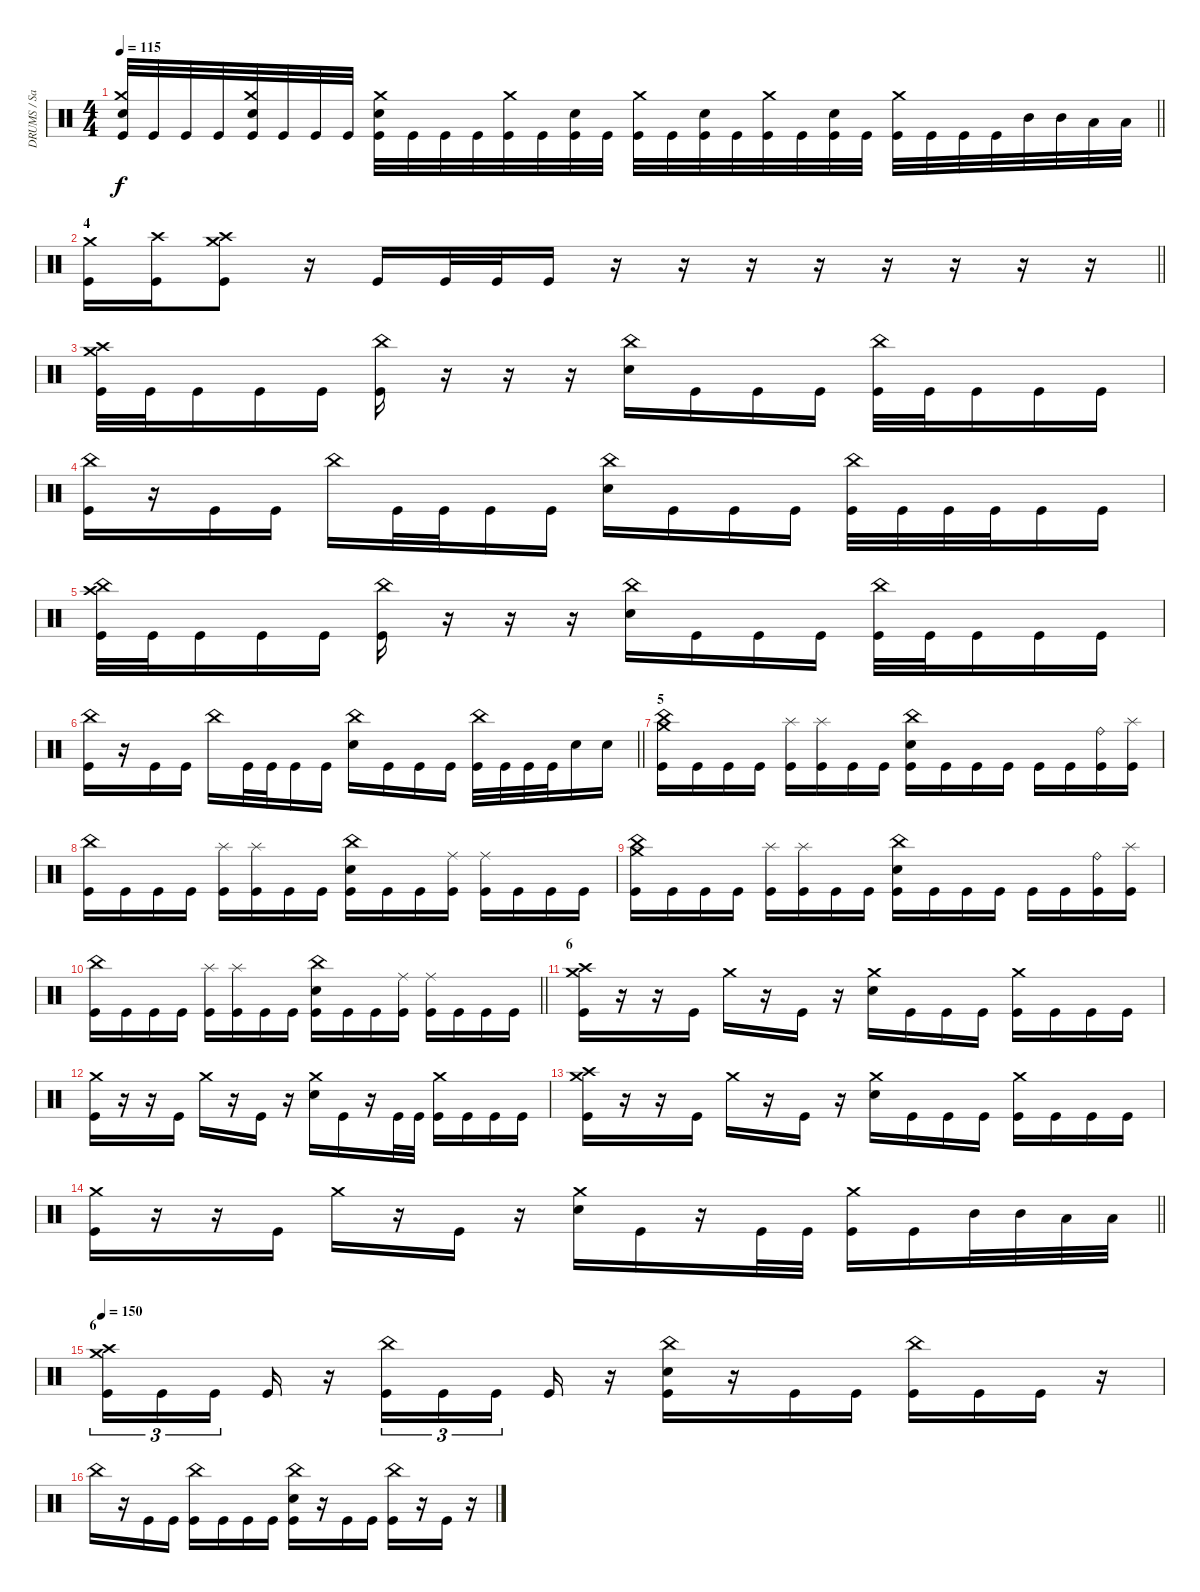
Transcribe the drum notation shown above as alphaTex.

\track ("DRUMS / Sasha" "DRUMS / Sa") {instrument percussion}
\staff {score}
\articulation defaults
\ts (4 4)
\tempo 115
\clef neutral
\barLineRight lightlight
\ks c
("Kick (hit)" "Crash medium (hit)" "Snare (hit) 2").32{dy f} "Kick (hit)".32 "Kick (hit)".32 "Kick (hit)".32 ("Kick (hit)" "Crash medium (hit)" "Snare (hit) 2").32 "Kick (hit)".32 "Kick (hit)".32 "Kick (hit)".32 ("Kick (hit)" "Crash medium (hit)" "Snare (hit) 2").32 "Kick (hit)".32 "Kick (hit)".32 "Kick (hit)".32 ("Kick (hit)" "Crash medium (hit)").32 "Kick (hit)".32 ("Kick (hit)" "Snare (hit) 2").32 "Kick (hit)".32 ("Kick (hit)" "Crash medium (hit)").32 "Kick (hit)".32 ("Kick (hit)" "Snare (hit) 2").32 "Kick (hit)".32 ("Kick (hit)" "Crash medium (hit)").32 "Kick (hit)".32 ("Kick (hit)" "Snare (hit) 2").32 "Kick (hit)".32 ("Kick (hit)" "Crash medium (hit)").32 "Kick (hit)".32 "Kick (hit)".32 "Kick (hit)".32 "Mid Tom (hit)".32 "Mid Tom (hit)".32 "Low Tom (hit)".32 "Low Tom (hit)".32 |
\section ("" "4")
\barLineRight lightlight
("Crash medium (hit)" "Kick (hit)").16 ("Crash high (hit)" "Kick (hit)").16 ("Crash medium (hit)" "Crash high (hit)" "Kick (hit)").8 r.16 "Kick (hit)".16 "Kick (hit)".32 "Kick (hit)".32 "Kick (hit)".16 r.16 r.16 r.16 r.16 r.16 r.16 r.16 r.16 |
\section ("" "")
("Crash high (hit)" "Kick (hit)" "Crash medium (hit)").32 "Kick (hit)".32 "Kick (hit)".16 "Kick (hit)".16 "Kick (hit)".16 ("China (hit)" "Kick (hit)").16 r.16 r.16 r.16 ("China (hit)" "Snare (hit) 2").16 "Kick (hit)".16 "Kick (hit)".16 "Kick (hit)".16 ("China (hit)" "Kick (hit)").32 "Kick (hit)".32 "Kick (hit)".16 "Kick (hit)".16 "Kick (hit)".16 |
("China (hit)" "Kick (hit)").16 r.16 "Kick (hit)".16 "Kick (hit)".16 "China (hit)".16 "Kick (hit)".32 "Kick (hit)".32 "Kick (hit)".16 "Kick (hit)".16 ("China (hit)" "Snare (hit) 2").16 "Kick (hit)".16 "Kick (hit)".16 "Kick (hit)".16 ("China (hit)" "Kick (hit)").32 "Kick (hit)".32 "Kick (hit)".32 "Kick (hit)".32 "Kick (hit)".16 "Kick (hit)".16 |
("Crash high (hit)" "China (hit)" "Kick (hit)").32 "Kick (hit)".32 "Kick (hit)".16 "Kick (hit)".16 "Kick (hit)".16 ("China (hit)" "Kick (hit)").16 r.16 r.16 r.16 ("China (hit)" "Snare (hit) 2").16 "Kick (hit)".16 "Kick (hit)".16 "Kick (hit)".16 ("China (hit)" "Kick (hit)").32 "Kick (hit)".32 "Kick (hit)".16 "Kick (hit)".16 "Kick (hit)".16 |
\barLineRight lightlight
("China (hit)" "Kick (hit)").16 r.16 "Kick (hit)".16 "Kick (hit)".16 "China (hit)".16 "Kick (hit)".32 "Kick (hit)".32 "Kick (hit)".16 "Kick (hit)".16 ("China (hit)" "Snare (hit) 2").16 "Kick (hit)".16 "Kick (hit)".16 "Kick (hit)".16 ("China (hit)" "Kick (hit)").32 "Kick (hit)".32 "Kick (hit)".32 "Kick (hit)".32 "Snare (hit) 2".16 "Snare (hit) 2".16 |
\section ("" "5")
("Crash medium (hit)" "China (hit)" "Kick (hit)").16 "Kick (hit)".16 "Kick (hit)".16 "Kick (hit)".16 ("Splash (hit)" "Kick (hit)").16 ("Splash (hit)" "Kick (hit)").16 "Kick (hit)".16 "Kick (hit)".16 ("China (hit)" "Snare (hit) 2" "Kick (hit)").16 "Kick (hit)".16 "Kick (hit)".16 "Kick (hit)".16 "Kick (hit)".16 "Kick (hit)".16 ("Ride (bell)" "Kick (hit)").16 ("Splash (hit)" "Kick (hit)").16 |
("China (hit)" "Kick (hit)").16 "Kick (hit)".16 "Kick (hit)".16 "Kick (hit)".16 ("Splash (hit)" "Kick (hit)").16 ("Splash (hit)" "Kick (hit)").16 "Kick (hit)".16 "Kick (hit)".16 ("China (hit)" "Snare (hit) 2" "Kick (hit)").16 "Kick (hit)".16 "Kick (hit)".16 ("Ride (middle)" "Kick (hit)").16 ("Ride (middle)" "Kick (hit)").16 "Kick (hit)".16 "Kick (hit)".16 "Kick (hit)".16 |
("Crash medium (hit)" "China (hit)" "Kick (hit)").16 "Kick (hit)".16 "Kick (hit)".16 "Kick (hit)".16 ("Splash (hit)" "Kick (hit)").16 ("Splash (hit)" "Kick (hit)").16 "Kick (hit)".16 "Kick (hit)".16 ("China (hit)" "Snare (hit) 2" "Kick (hit)").16 "Kick (hit)".16 "Kick (hit)".16 "Kick (hit)".16 "Kick (hit)".16 "Kick (hit)".16 ("Ride (bell)" "Kick (hit)").16 ("Splash (hit)" "Kick (hit)").16 |
\barLineRight lightlight
("China (hit)" "Kick (hit)").16 "Kick (hit)".16 "Kick (hit)".16 "Kick (hit)".16 ("Splash (hit)" "Kick (hit)").16 ("Splash (hit)" "Kick (hit)").16 "Kick (hit)".16 "Kick (hit)".16 ("China (hit)" "Snare (hit) 2" "Kick (hit)").16 "Kick (hit)".16 "Kick (hit)".16 ("Ride (middle)" "Kick (hit)").16 ("Ride (middle)" "Kick (hit)").16 "Kick (hit)".16 "Kick (hit)".16 "Kick (hit)".16 |
\section ("" "6")
("Kick (hit)" "Crash high (hit)" "Crash medium (hit)").16 r.16 r.16 "Kick (hit)".16 "Crash medium (hit)".16 r.16 "Kick (hit)".16 r.16 ("Crash medium (hit)" "Snare (hit) 2").16 "Kick (hit)".16 "Kick (hit)".16 "Kick (hit)".16 ("Kick (hit)" "Crash medium (hit)").16 "Kick (hit)".16 "Kick (hit)".16 "Kick (hit)".16 |
("Kick (hit)" "Crash medium (hit)").16 r.16 r.16 "Kick (hit)".16 "Crash medium (hit)".16 r.16 "Kick (hit)".16 r.16 ("Crash medium (hit)" "Snare (hit) 2").16 "Kick (hit)".16 r.16 "Kick (hit)".32 "Kick (hit)".32 ("Kick (hit)" "Crash medium (hit)").16 "Kick (hit)".16 "Kick (hit)".16 "Kick (hit)".16 |
("Kick (hit)" "Crash high (hit)" "Crash medium (hit)").16 r.16 r.16 "Kick (hit)".16 "Crash medium (hit)".16 r.16 "Kick (hit)".16 r.16 ("Crash medium (hit)" "Snare (hit) 2").16 "Kick (hit)".16 "Kick (hit)".16 "Kick (hit)".16 ("Kick (hit)" "Crash medium (hit)").16 "Kick (hit)".16 "Kick (hit)".16 "Kick (hit)".16 |
\barLineRight lightlight
("Kick (hit)" "Crash medium (hit)").16 r.16 r.16 "Kick (hit)".16 "Crash medium (hit)".16 r.16 "Kick (hit)".16 r.16 ("Crash medium (hit)" "Snare (hit) 2").16 "Kick (hit)".16 r.16 "Kick (hit)".32 "Kick (hit)".32 ("Kick (hit)" "Crash medium (hit)").16 "Kick (hit)".16 "Mid Tom (hit)".32 "Mid Tom (hit)".32 "Low Tom (hit)".32 "Low Tom (hit)".32 |
\section ("" "6")
\tempo 150
("Kick (hit)" "Crash medium (hit)" "Crash high (hit)").16{tu (3 2)} "Kick (hit)".16{tu (3 2)} "Kick (hit)".16{tu (3 2) beam splitsecondary} "Kick (hit)".16 r.16 ("Kick (hit)" "China (hit)").16{tu (3 2)} "Kick (hit)".16{tu (3 2)} "Kick (hit)".16{tu (3 2) beam splitsecondary} "Kick (hit)".16 r.16 ("Kick (hit)" "China (hit)" "Snare (hit) 2").16 r.16 "Kick (hit)".16 "Kick (hit)".16 ("Kick (hit)" "China (hit)").16 "Kick (hit)".16 "Kick (hit)".16 r.16 |
"China (hit)".16 r.16 "Kick (hit)".16 "Kick (hit)".16 ("Kick (hit)" "China (hit)").16 "Kick (hit)".16 "Kick (hit)".16 "Kick (hit)".16 ("Kick (hit)" "China (hit)" "Snare (hit) 2").16 r.16 "Kick (hit)".16 "Kick (hit)".16 ("Kick (hit)" "China (hit)").16 r.16 "Kick (hit)".16 r.16
